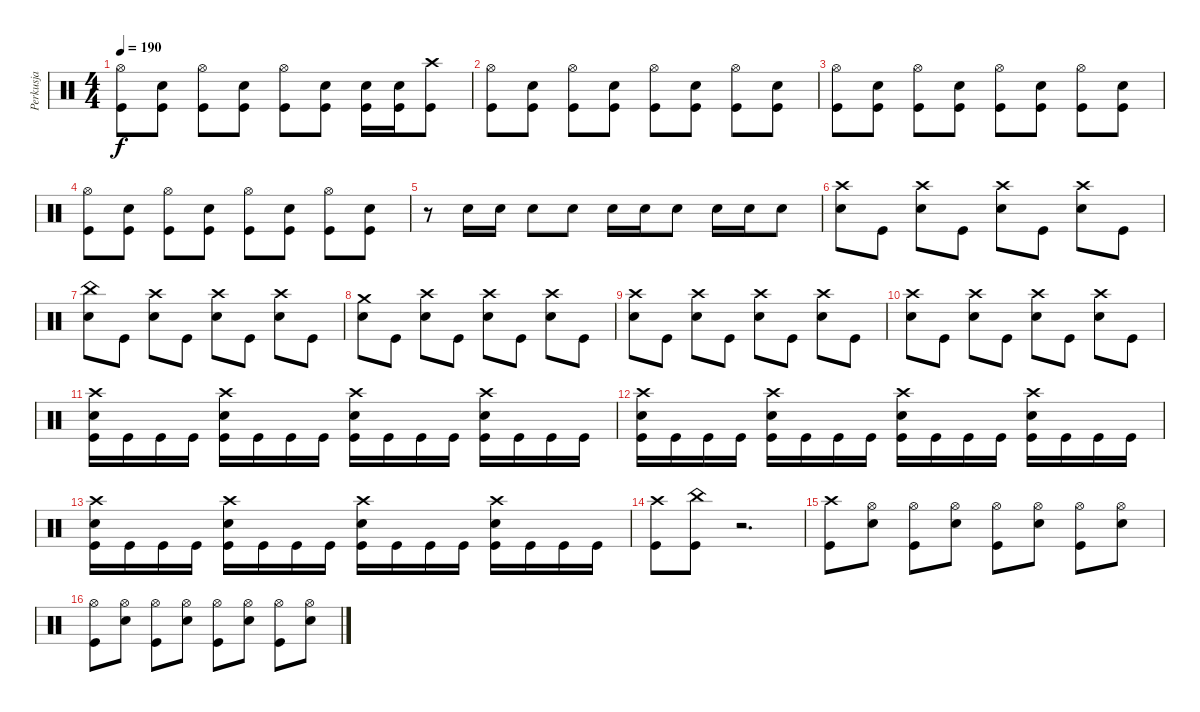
\track ("Perkusja" "Perkusja") {instrument percussion}
\staff {score}
\articulation defaults
\ts (4 4)
\tempo 190
\clef neutral
\ks c
("Hi-Hat (open)" "Kick (hit)").8{dy f} ("Electric Snare (hit)" "Kick (hit)").8 ("Hi-Hat (open)" "Kick (hit)").8 ("Electric Snare (hit)" "Kick (hit)").8 ("Hi-Hat (open)" "Kick (hit)").8 ("Electric Snare (hit)" "Kick (hit)").8 ("Electric Snare (hit)" "Kick (hit)").16 ("Electric Snare (hit)" "Kick (hit)").16 ("Crash high (hit)" "Kick (hit)").8 |
("Hi-Hat (open)" "Kick (hit)").8 ("Electric Snare (hit)" "Kick (hit)").8 ("Hi-Hat (open)" "Kick (hit)").8 ("Electric Snare (hit)" "Kick (hit)").8 ("Hi-Hat (open)" "Kick (hit)").8 ("Electric Snare (hit)" "Kick (hit)").8 ("Hi-Hat (open)" "Kick (hit)").8 ("Electric Snare (hit)" "Kick (hit)").8 |
("Hi-Hat (open)" "Kick (hit)").8 ("Electric Snare (hit)" "Kick (hit)").8 ("Hi-Hat (open)" "Kick (hit)").8 ("Electric Snare (hit)" "Kick (hit)").8 ("Hi-Hat (open)" "Kick (hit)").8 ("Electric Snare (hit)" "Kick (hit)").8 ("Hi-Hat (open)" "Kick (hit)").8 ("Electric Snare (hit)" "Kick (hit)").8 |
("Hi-Hat (open)" "Kick (hit)").8 ("Electric Snare (hit)" "Kick (hit)").8 ("Hi-Hat (open)" "Kick (hit)").8 ("Electric Snare (hit)" "Kick (hit)").8 ("Hi-Hat (open)" "Kick (hit)").8 ("Electric Snare (hit)" "Kick (hit)").8 ("Hi-Hat (open)" "Kick (hit)").8 ("Electric Snare (hit)" "Kick (hit)").8 |
r.8 "Electric Snare (hit)".16 "Electric Snare (hit)".16 "Electric Snare (hit)".8 "Electric Snare (hit)".8 "Electric Snare (hit)".16 "Electric Snare (hit)".16 "Electric Snare (hit)".8 "Electric Snare (hit)".16 "Electric Snare (hit)".16 "Electric Snare (hit)".8 |
("Crash high (hit)" "Electric Snare (hit)").8 "Kick (hit)".8 ("Crash high (hit)" "Electric Snare (hit)").8 "Kick (hit)".8 ("Crash high (hit)" "Electric Snare (hit)").8 "Kick (hit)".8 ("Crash high (hit)" "Electric Snare (hit)").8 "Kick (hit)".8 |
("China (hit)" "Electric Snare (hit)").8 "Kick (hit)".8 ("Crash high (hit)" "Electric Snare (hit)").8 "Kick (hit)".8 ("Crash high (hit)" "Electric Snare (hit)").8 "Kick (hit)".8 ("Crash high (hit)" "Electric Snare (hit)").8 "Kick (hit)".8 |
("Crash medium (hit)" "Electric Snare (hit)").8 "Kick (hit)".8 ("Crash high (hit)" "Electric Snare (hit)").8 "Kick (hit)".8 ("Crash high (hit)" "Electric Snare (hit)").8 "Kick (hit)".8 ("Crash high (hit)" "Electric Snare (hit)").8 "Kick (hit)".8 |
("Crash high (hit)" "Electric Snare (hit)").8 "Kick (hit)".8 ("Crash high (hit)" "Electric Snare (hit)").8 "Kick (hit)".8 ("Crash high (hit)" "Electric Snare (hit)").8 "Kick (hit)".8 ("Crash high (hit)" "Electric Snare (hit)").8 "Kick (hit)".8 |
("Crash high (hit)" "Electric Snare (hit)").8 "Kick (hit)".8 ("Crash high (hit)" "Electric Snare (hit)").8 "Kick (hit)".8 ("Crash high (hit)" "Electric Snare (hit)").8 "Kick (hit)".8 ("Crash high (hit)" "Electric Snare (hit)").8 "Kick (hit)".8 |
("Crash high (hit)" "Electric Snare (hit)" "Kick (hit)").16 "Kick (hit)".16 "Kick (hit)".16 "Kick (hit)".16 ("Crash high (hit)" "Electric Snare (hit)" "Kick (hit)").16 "Kick (hit)".16 "Kick (hit)".16 "Kick (hit)".16 ("Crash high (hit)" "Electric Snare (hit)" "Kick (hit)").16 "Kick (hit)".16 "Kick (hit)".16 "Kick (hit)".16 ("Crash high (hit)" "Electric Snare (hit)" "Kick (hit)").16 "Kick (hit)".16 "Kick (hit)".16 "Kick (hit)".16 |
("Crash high (hit)" "Electric Snare (hit)" "Kick (hit)").16 "Kick (hit)".16 "Kick (hit)".16 "Kick (hit)".16 ("Crash high (hit)" "Electric Snare (hit)" "Kick (hit)").16 "Kick (hit)".16 "Kick (hit)".16 "Kick (hit)".16 ("Crash high (hit)" "Electric Snare (hit)" "Kick (hit)").16 "Kick (hit)".16 "Kick (hit)".16 "Kick (hit)".16 ("Crash high (hit)" "Electric Snare (hit)" "Kick (hit)").16 "Kick (hit)".16 "Kick (hit)".16 "Kick (hit)".16 |
("Crash high (hit)" "Electric Snare (hit)" "Kick (hit)").16 "Kick (hit)".16 "Kick (hit)".16 "Kick (hit)".16 ("Crash high (hit)" "Electric Snare (hit)" "Kick (hit)").16 "Kick (hit)".16 "Kick (hit)".16 "Kick (hit)".16 ("Crash high (hit)" "Electric Snare (hit)" "Kick (hit)").16 "Kick (hit)".16 "Kick (hit)".16 "Kick (hit)".16 ("Crash high (hit)" "Electric Snare (hit)" "Kick (hit)").16 "Kick (hit)".16 "Kick (hit)".16 "Kick (hit)".16 |
("Crash high (hit)" "Kick (hit)").8 ("China (hit)" "Kick (hit)").8 r.2{d} |
("Crash high (hit)" "Kick (hit)").8 ("Hi-Hat (open)" "Electric Snare (hit)").8 ("Hi-Hat (open)" "Kick (hit)").8 ("Hi-Hat (open)" "Electric Snare (hit)").8 ("Hi-Hat (open)" "Kick (hit)").8 ("Hi-Hat (open)" "Electric Snare (hit)").8 ("Hi-Hat (open)" "Kick (hit)").8 ("Hi-Hat (open)" "Electric Snare (hit)").8 |
("Hi-Hat (open)" "Kick (hit)").8 ("Hi-Hat (open)" "Electric Snare (hit)").8 ("Hi-Hat (open)" "Kick (hit)").8 ("Hi-Hat (open)" "Electric Snare (hit)").8 ("Hi-Hat (open)" "Kick (hit)").8 ("Hi-Hat (open)" "Electric Snare (hit)").8 ("Hi-Hat (open)" "Kick (hit)").8 ("Hi-Hat (open)" "Electric Snare (hit)").8
